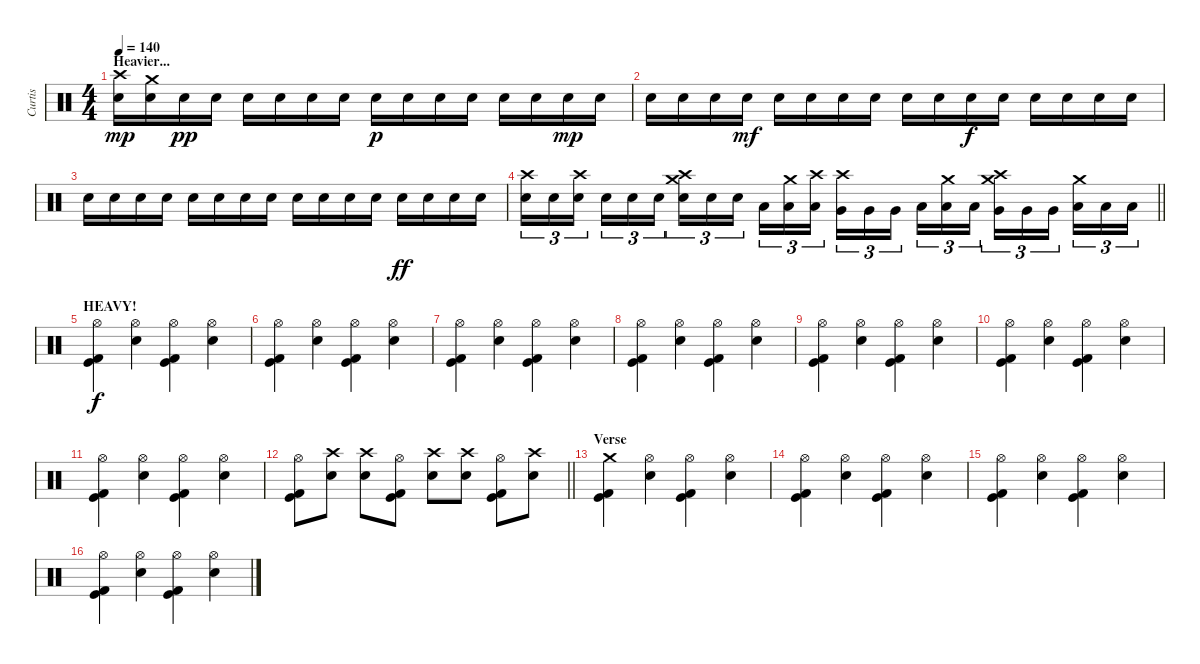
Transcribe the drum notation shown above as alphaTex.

\track ("Curtis" "Curtis") {instrument percussion}
\staff {score}
\articulation defaults
\ts (4 4)
\section ("" "Heavier...")
\tempo 140
\clef neutral
\ks c
("Crash high (hit)" "Electric Snare (hit)").16{dy mp} ("Crash medium (hit)" "Electric Snare (hit)").16 "Electric Snare (hit)".16{dy pp} "Electric Snare (hit)".16 "Electric Snare (hit)".16 "Electric Snare (hit)".16 "Electric Snare (hit)".16 "Electric Snare (hit)".16 "Electric Snare (hit)".16{dy p} "Electric Snare (hit)".16 "Electric Snare (hit)".16 "Electric Snare (hit)".16 "Electric Snare (hit)".16 "Electric Snare (hit)".16 "Electric Snare (hit)".16{dy mp} "Electric Snare (hit)".16 |
"Electric Snare (hit)".16 "Electric Snare (hit)".16 "Electric Snare (hit)".16 "Electric Snare (hit)".16{dy mf} "Electric Snare (hit)".16 "Electric Snare (hit)".16 "Electric Snare (hit)".16 "Electric Snare (hit)".16 "Electric Snare (hit)".16 "Electric Snare (hit)".16 "Electric Snare (hit)".16{dy f} "Electric Snare (hit)".16 "Electric Snare (hit)".16 "Electric Snare (hit)".16 "Electric Snare (hit)".16 "Electric Snare (hit)".16 |
"Electric Snare (hit)".16 "Electric Snare (hit)".16 "Electric Snare (hit)".16 "Electric Snare (hit)".16 "Electric Snare (hit)".16 "Electric Snare (hit)".16 "Electric Snare (hit)".16 "Electric Snare (hit)".16 "Electric Snare (hit)".16 "Electric Snare (hit)".16 "Electric Snare (hit)".16 "Electric Snare (hit)".16 "Electric Snare (hit)".16{dy ff} "Electric Snare (hit)".16 "Electric Snare (hit)".16 "Electric Snare (hit)".16 |
\barLineRight lightlight
("Crash high (hit)" "Electric Snare (hit)").16{tu (3 2)} "Electric Snare (hit)".16{tu (3 2)} ("Crash high (hit)" "Electric Snare (hit)").16{tu (3 2) beam splitsecondary} "Electric Snare (hit)".16{tu (3 2)} "Electric Snare (hit)".16{tu (3 2)} "Electric Snare (hit)".16{tu (3 2)} ("Crash medium (hit)" "Crash high (hit)" "Electric Snare (hit)").16{tu (3 2)} "Electric Snare (hit)".16{tu (3 2)} "Electric Snare (hit)".16{tu (3 2) beam splitsecondary} "Low Tom (hit)".16{tu (3 2)} ("Crash medium (hit)" "Low Tom (hit)").16{tu (3 2)} ("Crash high (hit)" "Low Tom (hit)").16{tu (3 2)} ("Crash high (hit)" "Very Low Tom (hit)").16{tu (3 2)} "Very Low Tom (hit)".16{tu (3 2)} "Very Low Tom (hit)".16{tu (3 2) beam splitsecondary} "Low Floor Tom (hit)".16{tu (3 2)} ("Crash medium (hit)" "Low Floor Tom (hit)").16{tu (3 2)} "Low Floor Tom (hit)".16{tu (3 2)} ("Crash medium (hit)" "Crash high (hit)" "Very Low Tom (hit)").16{tu (3 2)} "Very Low Tom (hit)".16{tu (3 2)} "Very Low Tom (hit)".16{tu (3 2) beam splitsecondary} ("Crash medium (hit)" "Low Floor Tom (hit)").16{tu (3 2)} "Low Floor Tom (hit)".16{tu (3 2)} "Low Floor Tom (hit)".16{tu (3 2)} |
\section ("" "HEAVY!")
("Hi-Hat (open)" "Kick (hit)" "Kick (hit) 2").4{dy f} ("Hi-Hat (open)" "Electric Snare (hit)").4 ("Hi-Hat (open)" "Kick (hit)" "Kick (hit) 2").4 ("Hi-Hat (open)" "Electric Snare (hit)").4 |
("Hi-Hat (open)" "Kick (hit)" "Kick (hit) 2").4 ("Hi-Hat (open)" "Electric Snare (hit)").4 ("Hi-Hat (open)" "Kick (hit)" "Kick (hit) 2").4 ("Hi-Hat (open)" "Electric Snare (hit)").4 |
("Hi-Hat (open)" "Kick (hit)" "Kick (hit) 2").4 ("Hi-Hat (open)" "Electric Snare (hit)").4 ("Hi-Hat (open)" "Kick (hit)" "Kick (hit) 2").4 ("Hi-Hat (open)" "Electric Snare (hit)").4 |
("Hi-Hat (open)" "Kick (hit)" "Kick (hit) 2").4 ("Hi-Hat (open)" "Electric Snare (hit)").4 ("Hi-Hat (open)" "Kick (hit)" "Kick (hit) 2").4 ("Hi-Hat (open)" "Electric Snare (hit)").4 |
("Hi-Hat (open)" "Kick (hit)" "Kick (hit) 2").4 ("Hi-Hat (open)" "Electric Snare (hit)").4 ("Hi-Hat (open)" "Kick (hit)" "Kick (hit) 2").4 ("Hi-Hat (open)" "Electric Snare (hit)").4 |
("Hi-Hat (open)" "Kick (hit)" "Kick (hit) 2").4 ("Hi-Hat (open)" "Electric Snare (hit)").4 ("Hi-Hat (open)" "Kick (hit)" "Kick (hit) 2").4 ("Hi-Hat (open)" "Electric Snare (hit)").4 |
("Hi-Hat (open)" "Kick (hit)" "Kick (hit) 2").4 ("Hi-Hat (open)" "Electric Snare (hit)").4 ("Hi-Hat (open)" "Kick (hit)" "Kick (hit) 2").4 ("Hi-Hat (open)" "Electric Snare (hit)").4 |
\barLineRight lightlight
("Hi-Hat (open)" "Kick (hit) 2" "Kick (hit)").8 ("Crash high (hit)" "Electric Snare (hit)").8 ("Crash high (hit)" "Electric Snare (hit)").8 ("Hi-Hat (open)" "Kick (hit) 2" "Kick (hit)").8 ("Crash high (hit)" "Electric Snare (hit)").8 ("Crash high (hit)" "Electric Snare (hit)").8 ("Hi-Hat (open)" "Kick (hit) 2" "Kick (hit)").8 ("Crash high (hit)" "Electric Snare (hit)").8 |
\section ("" "Verse")
("Crash medium (hit)" "Kick (hit)" "Kick (hit) 2").4 ("Hi-Hat (open)" "Electric Snare (hit)").4 ("Hi-Hat (open)" "Kick (hit)" "Kick (hit) 2").4 ("Hi-Hat (open)" "Electric Snare (hit)").4 |
("Hi-Hat (open)" "Kick (hit)" "Kick (hit) 2").4 ("Hi-Hat (open)" "Electric Snare (hit)").4 ("Hi-Hat (open)" "Kick (hit)" "Kick (hit) 2").4 ("Hi-Hat (open)" "Electric Snare (hit)").4 |
("Hi-Hat (open)" "Kick (hit)" "Kick (hit) 2").4 ("Hi-Hat (open)" "Electric Snare (hit)").4 ("Hi-Hat (open)" "Kick (hit)" "Kick (hit) 2").4 ("Hi-Hat (open)" "Electric Snare (hit)").4 |
("Hi-Hat (open)" "Kick (hit)" "Kick (hit) 2").4 ("Hi-Hat (open)" "Electric Snare (hit)").4 ("Hi-Hat (open)" "Kick (hit)" "Kick (hit) 2").4 ("Hi-Hat (open)" "Electric Snare (hit)").4
